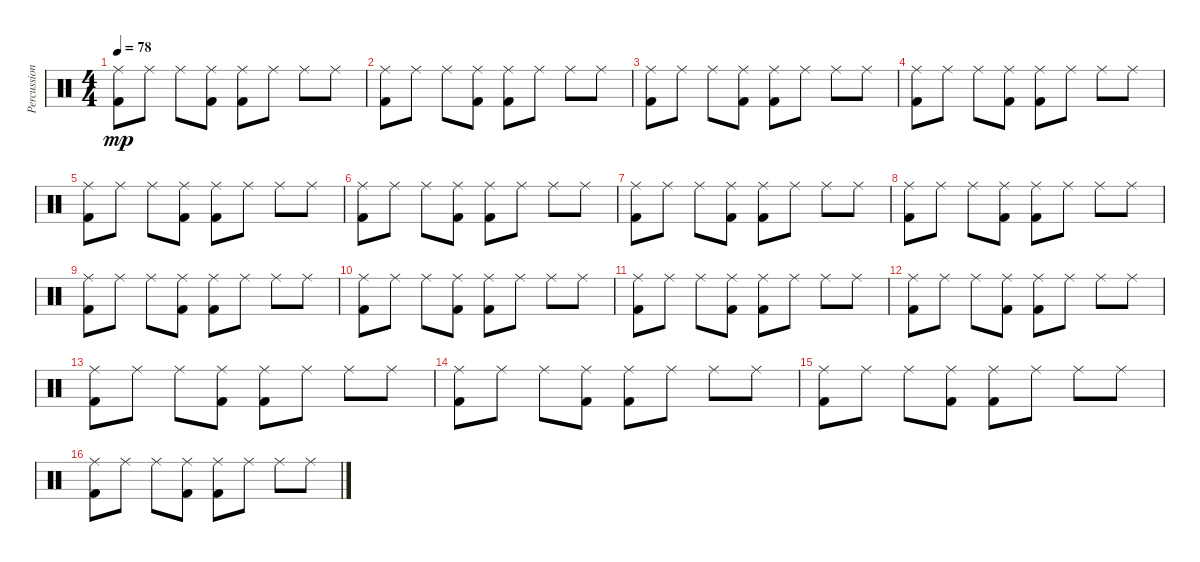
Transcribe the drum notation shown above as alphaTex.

\track ("Percussion" "Percussion") {solo instrument percussion}
\staff {score}
\articulation defaults
\ts (4 4)
\tempo 78
\clef neutral
\ks c
("Kick (hit) 2" "Ride (middle)").8{dy mp} "Ride (middle)".8 "Ride (middle)".8 ("Kick (hit) 2" "Ride (middle)").8 ("Kick (hit) 2" "Ride (middle)").8 "Ride (middle)".8 "Ride (middle)".8 "Ride (middle)".8 |
("Kick (hit) 2" "Ride (middle)").8 "Ride (middle)".8 "Ride (middle)".8 ("Kick (hit) 2" "Ride (middle)").8 ("Kick (hit) 2" "Ride (middle)").8 "Ride (middle)".8 "Ride (middle)".8 "Ride (middle)".8 |
("Kick (hit) 2" "Ride (middle)").8 "Ride (middle)".8 "Ride (middle)".8 ("Kick (hit) 2" "Ride (middle)").8 ("Kick (hit) 2" "Ride (middle)").8 "Ride (middle)".8 "Ride (middle)".8 "Ride (middle)".8 |
("Kick (hit) 2" "Ride (middle)").8 "Ride (middle)".8 "Ride (middle)".8 ("Kick (hit) 2" "Ride (middle)").8 ("Kick (hit) 2" "Ride (middle)").8 "Ride (middle)".8 "Ride (middle)".8 "Ride (middle)".8 |
("Kick (hit) 2" "Ride (middle)").8 "Ride (middle)".8 "Ride (middle)".8 ("Kick (hit) 2" "Ride (middle)").8 ("Kick (hit) 2" "Ride (middle)").8 "Ride (middle)".8 "Ride (middle)".8 "Ride (middle)".8 |
("Kick (hit) 2" "Ride (middle)").8 "Ride (middle)".8 "Ride (middle)".8 ("Kick (hit) 2" "Ride (middle)").8 ("Kick (hit) 2" "Ride (middle)").8 "Ride (middle)".8 "Ride (middle)".8 "Ride (middle)".8 |
("Kick (hit) 2" "Ride (middle)").8 "Ride (middle)".8 "Ride (middle)".8 ("Kick (hit) 2" "Ride (middle)").8 ("Kick (hit) 2" "Ride (middle)").8 "Ride (middle)".8 "Ride (middle)".8 "Ride (middle)".8 |
("Kick (hit) 2" "Ride (middle)").8 "Ride (middle)".8 "Ride (middle)".8 ("Kick (hit) 2" "Ride (middle)").8 ("Kick (hit) 2" "Ride (middle)").8 "Ride (middle)".8 "Ride (middle)".8 "Ride (middle)".8 |
("Kick (hit) 2" "Ride (middle)").8 "Ride (middle)".8 "Ride (middle)".8 ("Kick (hit) 2" "Ride (middle)").8 ("Kick (hit) 2" "Ride (middle)").8 "Ride (middle)".8 "Ride (middle)".8 "Ride (middle)".8 |
("Kick (hit) 2" "Ride (middle)").8 "Ride (middle)".8 "Ride (middle)".8 ("Kick (hit) 2" "Ride (middle)").8 ("Kick (hit) 2" "Ride (middle)").8 "Ride (middle)".8 "Ride (middle)".8 "Ride (middle)".8 |
("Kick (hit) 2" "Ride (middle)").8 "Ride (middle)".8 "Ride (middle)".8 ("Kick (hit) 2" "Ride (middle)").8 ("Kick (hit) 2" "Ride (middle)").8 "Ride (middle)".8 "Ride (middle)".8 "Ride (middle)".8 |
("Kick (hit) 2" "Ride (middle)").8 "Ride (middle)".8 "Ride (middle)".8 ("Kick (hit) 2" "Ride (middle)").8 ("Kick (hit) 2" "Ride (middle)").8 "Ride (middle)".8 "Ride (middle)".8 "Ride (middle)".8 |
("Kick (hit) 2" "Ride (middle)").8 "Ride (middle)".8 "Ride (middle)".8 ("Kick (hit) 2" "Ride (middle)").8 ("Kick (hit) 2" "Ride (middle)").8 "Ride (middle)".8 "Ride (middle)".8 "Ride (middle)".8 |
("Kick (hit) 2" "Ride (middle)").8 "Ride (middle)".8 "Ride (middle)".8 ("Kick (hit) 2" "Ride (middle)").8 ("Kick (hit) 2" "Ride (middle)").8 "Ride (middle)".8 "Ride (middle)".8 "Ride (middle)".8 |
("Kick (hit) 2" "Ride (middle)").8 "Ride (middle)".8 "Ride (middle)".8 ("Kick (hit) 2" "Ride (middle)").8 ("Kick (hit) 2" "Ride (middle)").8 "Ride (middle)".8 "Ride (middle)".8 "Ride (middle)".8 |
("Kick (hit) 2" "Ride (middle)").8 "Ride (middle)".8 "Ride (middle)".8 ("Kick (hit) 2" "Ride (middle)").8 ("Kick (hit) 2" "Ride (middle)").8 "Ride (middle)".8 "Ride (middle)".8 "Ride (middle)".8
